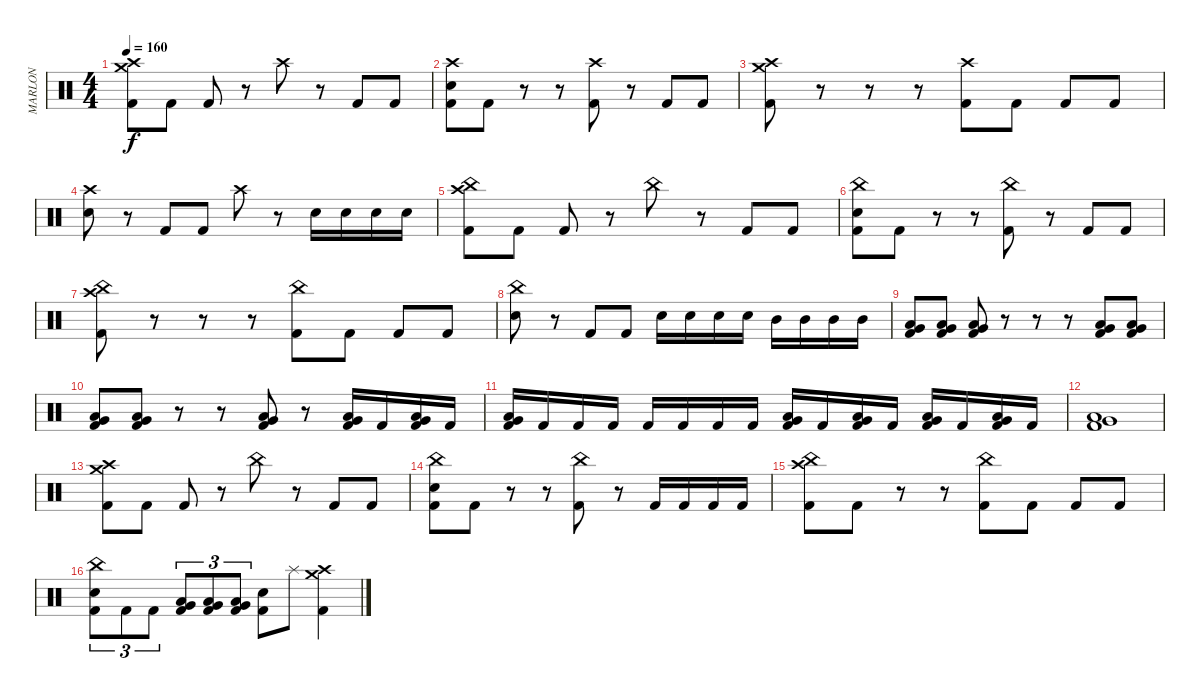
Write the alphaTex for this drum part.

\track ("MARLON" "MARLON") {instrument percussion}
\staff {score}
\articulation defaults
\ts (4 4)
\tempo 160
\clef neutral
\ks c
("Crash medium (hit)" "Crash high (hit)" "Kick (hit) 2").8{dy f} "Kick (hit) 2".8 "Kick (hit) 2".8 r.8 "Crash high (hit)".8 r.8 "Kick (hit) 2".8 "Kick (hit) 2".8 |
("Crash high (hit)" "Electric Snare (hit)" "Kick (hit) 2").8 "Kick (hit) 2".8 r.8 r.8 ("Crash high (hit)" "Kick (hit) 2").8 r.8 "Kick (hit) 2".8 "Kick (hit) 2".8 |
("Crash medium (hit)" "Crash high (hit)" "Kick (hit) 2").8 r.8 r.8 r.8 ("Crash high (hit)" "Kick (hit) 2").8 "Kick (hit) 2".8 "Kick (hit) 2".8 "Kick (hit) 2".8 |
("Crash high (hit)" "Electric Snare (hit)").8 r.8 "Kick (hit) 2".8 "Kick (hit) 2".8 "Crash high (hit)".8 r.8 "Electric Snare (hit)".16 "Electric Snare (hit)".16 "Electric Snare (hit)".16 "Electric Snare (hit)".16 |
("China (hit)" "Crash high (hit)" "Kick (hit) 2").8 "Kick (hit) 2".8 "Kick (hit) 2".8 r.8 "China (hit)".8 r.8 "Kick (hit) 2".8 "Kick (hit) 2".8 |
("China (hit)" "Electric Snare (hit)" "Kick (hit) 2").8 "Kick (hit) 2".8 r.8 r.8 ("China (hit)" "Kick (hit) 2").8 r.8 "Kick (hit) 2".8 "Kick (hit) 2".8 |
("China (hit)" "Crash high (hit)" "Kick (hit) 2").8 r.8 r.8 r.8 ("China (hit)" "Kick (hit) 2").8 "Kick (hit) 2".8 "Kick (hit) 2".8 "Kick (hit) 2".8 |
("China (hit)" "Electric Snare (hit)").8 r.8 "Kick (hit) 2".8 "Kick (hit) 2".8 "Electric Snare (hit)".16 "Electric Snare (hit)".16 "Electric Snare (hit)".16 "Electric Snare (hit)".16 "Mid Tom (hit)".16 "Mid Tom (hit)".16 "Mid Tom (hit)".16 "Mid Tom (hit)".16 |
("Low Tom (hit)" "Very Low Tom (hit)" "Kick (hit) 2").8 ("Low Tom (hit)" "Very Low Tom (hit)" "Kick (hit) 2").8 ("Low Tom (hit)" "Very Low Tom (hit)" "Kick (hit) 2").8 r.8 r.8 r.8 ("Low Tom (hit)" "Very Low Tom (hit)" "Kick (hit) 2").8 ("Low Tom (hit)" "Very Low Tom (hit)" "Kick (hit) 2").8 |
("Low Tom (hit)" "Very Low Tom (hit)" "Kick (hit) 2").8 ("Low Tom (hit)" "Very Low Tom (hit)" "Kick (hit) 2").8 r.8 r.8 ("Low Tom (hit)" "Very Low Tom (hit)" "Kick (hit) 2").8 r.8 ("Low Tom (hit)" "Very Low Tom (hit)" "Kick (hit) 2").16 "Kick (hit) 2".16 ("Low Tom (hit)" "Very Low Tom (hit)" "Kick (hit) 2").16 "Kick (hit) 2".16 |
("Low Tom (hit)" "Very Low Tom (hit)" "Kick (hit) 2").16 "Kick (hit) 2".16 "Kick (hit) 2".16 "Kick (hit) 2".16 "Kick (hit) 2".16 "Kick (hit) 2".16 "Kick (hit) 2".16 "Kick (hit) 2".16 ("Low Tom (hit)" "Very Low Tom (hit)" "Kick (hit) 2").16 "Kick (hit) 2".16 ("Low Tom (hit)" "Very Low Tom (hit)" "Kick (hit) 2").16 "Kick (hit) 2".16 ("Low Tom (hit)" "Very Low Tom (hit)" "Kick (hit) 2").16 "Kick (hit) 2".16 ("Low Tom (hit)" "Very Low Tom (hit)" "Kick (hit) 2").16 "Kick (hit) 2".16 |
("Low Tom (hit)" "Very Low Tom (hit)" "Kick (hit) 2").1 |
("Crash medium (hit)" "Crash high (hit)" "Kick (hit) 2").8 "Kick (hit) 2".8 "Kick (hit) 2".8 r.8 "China (hit)".8 r.8 "Kick (hit) 2".8 "Kick (hit) 2".8 |
("China (hit)" "Electric Snare (hit)" "Kick (hit) 2").8 "Kick (hit) 2".8 r.8 r.8 ("China (hit)" "Kick (hit) 2").8 r.8 "Kick (hit) 2".16 "Kick (hit) 2".16 "Kick (hit) 2".16 "Kick (hit) 2".16 |
("China (hit)" "Crash high (hit)" "Kick (hit) 2").8 "Kick (hit) 2".8 r.8 r.8 ("China (hit)" "Kick (hit) 2").8 "Kick (hit) 2".8 "Kick (hit) 2".8 "Kick (hit) 2".8 |
("China (hit)" "Electric Snare (hit)" "Kick (hit) 2").8{tu (3 2)} "Kick (hit) 2".8{tu (3 2)} "Kick (hit) 2".8{tu (3 2)} ("Very Low Tom (hit)" "Low Tom (hit)" "Kick (hit) 2").8{tu (3 2)} ("Very Low Tom (hit)" "Low Tom (hit)" "Kick (hit) 2").8{tu (3 2)} ("Very Low Tom (hit)" "Low Tom (hit)" "Kick (hit) 2").8{tu (3 2)} ("Electric Snare (hit)" "Kick (hit) 2").8 "Splash (hit)".8 ("Crash medium (hit)" "Crash high (hit)" "Kick (hit) 2").4
